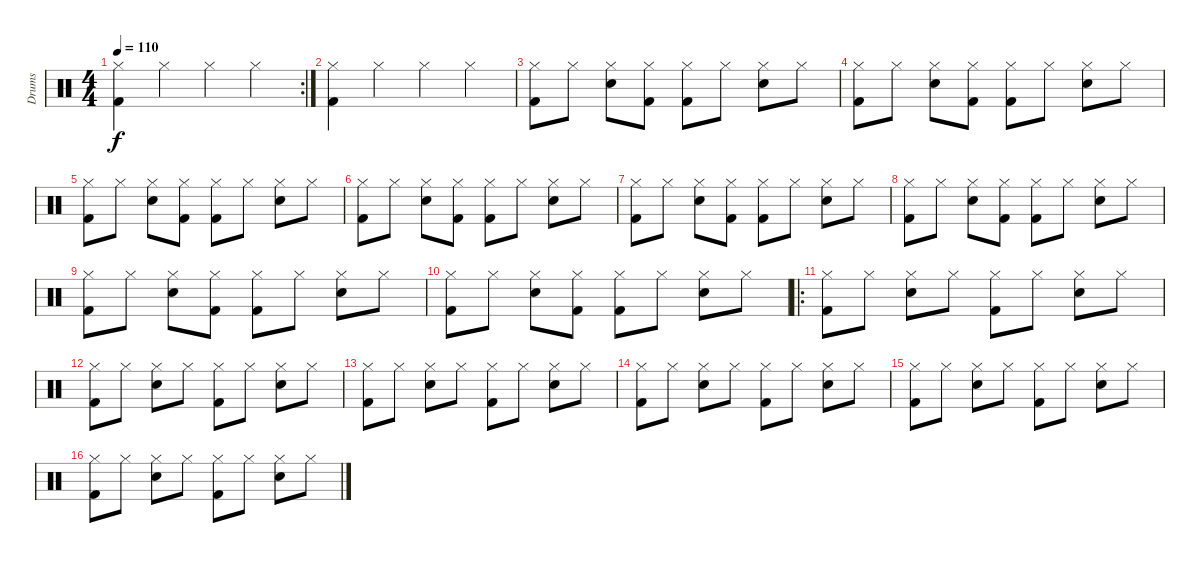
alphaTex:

\track ("Drums" "Drums") {instrument percussion}
\staff {score}
\articulation defaults
\rc 2
\ts (4 4)
\tempo 110
\clef neutral
\ks c
("Hi-Hat (closed)" "Kick (hit) 2").4{dy f} "Hi-Hat (closed)".4 "Hi-Hat (closed)".4 "Hi-Hat (closed)".4 |
("Hi-Hat (closed)" "Kick (hit) 2").4 "Hi-Hat (closed)".4 "Hi-Hat (closed)".4 "Hi-Hat (closed)".4 |
("Hi-Hat (closed)" "Kick (hit) 2").8 "Hi-Hat (closed)".8 ("Hi-Hat (closed)" "Snare (hit) 2").8 ("Hi-Hat (closed)" "Kick (hit) 2").8 ("Hi-Hat (closed)" "Kick (hit) 2").8 "Hi-Hat (closed)".8 ("Hi-Hat (closed)" "Snare (hit) 2").8 "Hi-Hat (closed)".8 |
("Hi-Hat (closed)" "Kick (hit) 2").8 "Hi-Hat (closed)".8 ("Hi-Hat (closed)" "Snare (hit) 2").8 ("Hi-Hat (closed)" "Kick (hit) 2").8 ("Hi-Hat (closed)" "Kick (hit) 2").8 "Hi-Hat (closed)".8 ("Hi-Hat (closed)" "Snare (hit) 2").8 "Hi-Hat (closed)".8 |
("Hi-Hat (closed)" "Kick (hit) 2").8 "Hi-Hat (closed)".8 ("Hi-Hat (closed)" "Snare (hit) 2").8 ("Hi-Hat (closed)" "Kick (hit) 2").8 ("Hi-Hat (closed)" "Kick (hit) 2").8 "Hi-Hat (closed)".8 ("Hi-Hat (closed)" "Snare (hit) 2").8 "Hi-Hat (closed)".8 |
("Hi-Hat (closed)" "Kick (hit) 2").8 "Hi-Hat (closed)".8 ("Hi-Hat (closed)" "Snare (hit) 2").8 ("Hi-Hat (closed)" "Kick (hit) 2").8 ("Hi-Hat (closed)" "Kick (hit) 2").8 "Hi-Hat (closed)".8 ("Hi-Hat (closed)" "Snare (hit) 2").8 "Hi-Hat (closed)".8 |
("Hi-Hat (closed)" "Kick (hit) 2").8 "Hi-Hat (closed)".8 ("Hi-Hat (closed)" "Snare (hit) 2").8 ("Hi-Hat (closed)" "Kick (hit) 2").8 ("Hi-Hat (closed)" "Kick (hit) 2").8 "Hi-Hat (closed)".8 ("Hi-Hat (closed)" "Snare (hit) 2").8 "Hi-Hat (closed)".8 |
("Hi-Hat (closed)" "Kick (hit) 2").8 "Hi-Hat (closed)".8 ("Hi-Hat (closed)" "Snare (hit) 2").8 ("Hi-Hat (closed)" "Kick (hit) 2").8 ("Hi-Hat (closed)" "Kick (hit) 2").8 "Hi-Hat (closed)".8 ("Hi-Hat (closed)" "Snare (hit) 2").8 "Hi-Hat (closed)".8 |
("Hi-Hat (closed)" "Kick (hit) 2").8 "Hi-Hat (closed)".8 ("Hi-Hat (closed)" "Snare (hit) 2").8 ("Hi-Hat (closed)" "Kick (hit) 2").8 ("Hi-Hat (closed)" "Kick (hit) 2").8 "Hi-Hat (closed)".8 ("Hi-Hat (closed)" "Snare (hit) 2").8 "Hi-Hat (closed)".8 |
("Hi-Hat (closed)" "Kick (hit) 2").8 "Hi-Hat (closed)".8 ("Hi-Hat (closed)" "Snare (hit) 2").8 ("Hi-Hat (closed)" "Kick (hit) 2").8 ("Hi-Hat (closed)" "Kick (hit) 2").8 "Hi-Hat (closed)".8 ("Hi-Hat (closed)" "Snare (hit) 2").8 "Hi-Hat (closed)".8 |
\ro
("Hi-Hat (closed)" "Kick (hit) 2").8 "Hi-Hat (closed)".8 ("Hi-Hat (closed)" "Snare (hit) 2").8 "Hi-Hat (closed)".8 ("Hi-Hat (closed)" "Kick (hit) 2").8 "Hi-Hat (closed)".8 ("Hi-Hat (closed)" "Snare (hit) 2").8 "Hi-Hat (closed)".8 |
("Hi-Hat (closed)" "Kick (hit) 2").8 "Hi-Hat (closed)".8 ("Hi-Hat (closed)" "Snare (hit) 2").8 "Hi-Hat (closed)".8 ("Hi-Hat (closed)" "Kick (hit) 2").8 "Hi-Hat (closed)".8 ("Hi-Hat (closed)" "Snare (hit) 2").8 "Hi-Hat (closed)".8 |
("Hi-Hat (closed)" "Kick (hit) 2").8 "Hi-Hat (closed)".8 ("Hi-Hat (closed)" "Snare (hit) 2").8 "Hi-Hat (closed)".8 ("Hi-Hat (closed)" "Kick (hit) 2").8 "Hi-Hat (closed)".8 ("Hi-Hat (closed)" "Snare (hit) 2").8 "Hi-Hat (closed)".8 |
("Hi-Hat (closed)" "Kick (hit) 2").8 "Hi-Hat (closed)".8 ("Hi-Hat (closed)" "Snare (hit) 2").8 "Hi-Hat (closed)".8 ("Hi-Hat (closed)" "Kick (hit) 2").8 "Hi-Hat (closed)".8 ("Hi-Hat (closed)" "Snare (hit) 2").8 "Hi-Hat (closed)".8 |
("Hi-Hat (closed)" "Kick (hit) 2").8 "Hi-Hat (closed)".8 ("Hi-Hat (closed)" "Snare (hit) 2").8 "Hi-Hat (closed)".8 ("Hi-Hat (closed)" "Kick (hit) 2").8 "Hi-Hat (closed)".8 ("Hi-Hat (closed)" "Snare (hit) 2").8 "Hi-Hat (closed)".8 |
("Hi-Hat (closed)" "Kick (hit) 2").8 "Hi-Hat (closed)".8 ("Hi-Hat (closed)" "Snare (hit) 2").8 "Hi-Hat (closed)".8 ("Hi-Hat (closed)" "Kick (hit) 2").8 "Hi-Hat (closed)".8 ("Hi-Hat (closed)" "Snare (hit) 2").8 "Hi-Hat (closed)".8
